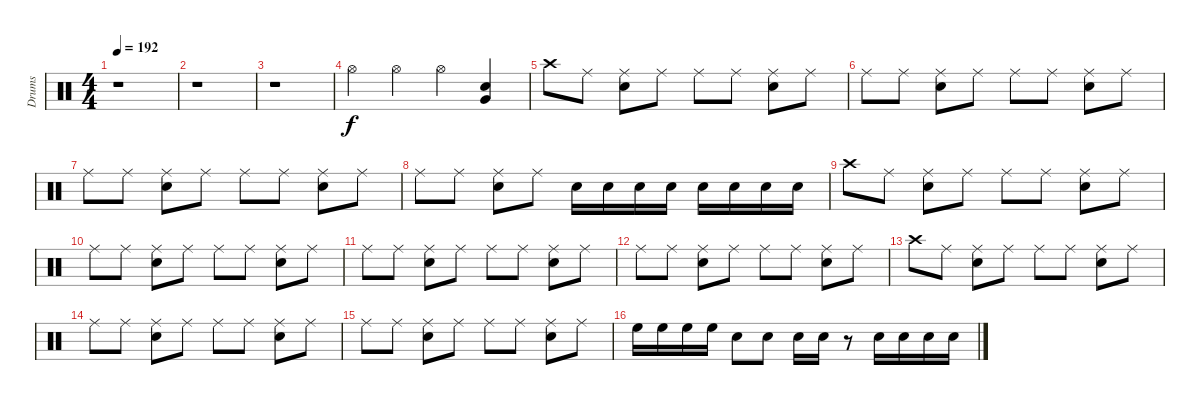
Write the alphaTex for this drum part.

\track ("Drums" "Drums") {instrument percussion}
\staff {score}
\articulation defaults
\ts (4 4)
\tempo 192
\clef neutral
\ks c
r.1{dy f} |
r.1 |
r.1 |
"Hi-Hat (open)".4 "Hi-Hat (open)".4 "Hi-Hat (open)".4 ("Snare (hit) 2" "Very Low Tom (hit)").4 |
"Crash high (hit)".8 "Ride (middle)".8 ("Ride (middle)" "Snare (hit) 2").8 "Ride (middle)".8 "Ride (middle)".8 "Ride (middle)".8 ("Ride (middle)" "Snare (hit) 2").8 "Ride (middle)".8 |
"Ride (middle)".8 "Ride (middle)".8 ("Ride (middle)" "Snare (hit) 2").8 "Ride (middle)".8 "Ride (middle)".8 "Ride (middle)".8 ("Ride (middle)" "Snare (hit) 2").8 "Ride (middle)".8 |
"Ride (middle)".8 "Ride (middle)".8 ("Ride (middle)" "Snare (hit) 2").8 "Ride (middle)".8 "Ride (middle)".8 "Ride (middle)".8 ("Ride (middle)" "Snare (hit) 2").8 "Ride (middle)".8 |
"Ride (middle)".8 "Ride (middle)".8 ("Ride (middle)" "Snare (hit) 2").8 "Ride (middle)".8 "Snare (hit) 2".16 "Snare (hit) 2".16 "Snare (hit) 2".16 "Snare (hit) 2".16 "Snare (hit) 2".16 "Snare (hit) 2".16 "Snare (hit) 2".16 "Snare (hit) 2".16 |
"Crash high (hit)".8 "Ride (middle)".8 ("Ride (middle)" "Snare (hit) 2").8 "Ride (middle)".8 "Ride (middle)".8 "Ride (middle)".8 ("Ride (middle)" "Snare (hit) 2").8 "Ride (middle)".8 |
"Ride (middle)".8 "Ride (middle)".8 ("Ride (middle)" "Snare (hit) 2").8 "Ride (middle)".8 "Ride (middle)".8 "Ride (middle)".8 ("Ride (middle)" "Snare (hit) 2").8 "Ride (middle)".8 |
"Ride (middle)".8 "Ride (middle)".8 ("Ride (middle)" "Snare (hit) 2").8 "Ride (middle)".8 "Ride (middle)".8 "Ride (middle)".8 ("Ride (middle)" "Snare (hit) 2").8 "Ride (middle)".8 |
"Ride (middle)".8 "Ride (middle)".8 ("Ride (middle)" "Snare (hit) 2").8 "Ride (middle)".8 "Ride (middle)".8 "Ride (middle)".8 ("Ride (middle)" "Snare (hit) 2").8 "Ride (middle)".8 |
"Crash high (hit)".8 "Ride (middle)".8 ("Ride (middle)" "Snare (hit) 2").8 "Ride (middle)".8 "Ride (middle)".8 "Ride (middle)".8 ("Ride (middle)" "Snare (hit) 2").8 "Ride (middle)".8 |
"Ride (middle)".8 "Ride (middle)".8 ("Ride (middle)" "Snare (hit) 2").8 "Ride (middle)".8 "Ride (middle)".8 "Ride (middle)".8 ("Ride (middle)" "Snare (hit) 2").8 "Ride (middle)".8 |
"Ride (middle)".8 "Ride (middle)".8 ("Ride (middle)" "Snare (hit) 2").8 "Ride (middle)".8 "Ride (middle)".8 "Ride (middle)".8 ("Ride (middle)" "Snare (hit) 2").8 "Ride (middle)".8 |
"High Floor Tom (hit)".16 "High Floor Tom (hit)".16 "High Floor Tom (hit)".16 "High Floor Tom (hit)".16 "Snare (hit) 2".8 "Snare (hit) 2".8 "Snare (hit) 2".16 "Snare (hit) 2".16 r.8 "Snare (hit) 2".16 "Snare (hit) 2".16 "Snare (hit) 2".16 "Snare (hit) 2".16
